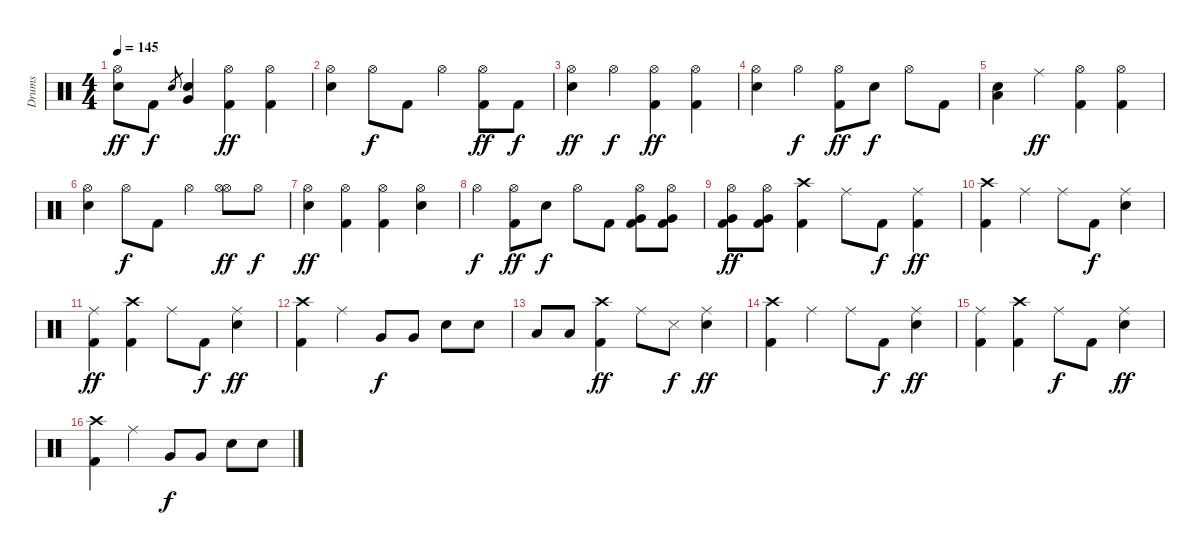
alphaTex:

\track ("Drums" "Drums") {instrument percussion}
\staff {score}
\articulation defaults
\ts (4 4)
\tempo 145
\clef neutral
\ks c
("Hi-Hat (open)" "Electric Snare (hit)").8{dy ff} "Kick (hit) 2".8{dy f} "Electric Snare (hit)".8{gr} ("Very Low Tom (hit)" "Electric Snare (hit)").4 ("Hi-Hat (open)" "Kick (hit) 2").4{dy ff} ("Hi-Hat (open)" "Kick (hit) 2").4 |
("Hi-Hat (open)" "Electric Snare (hit)").4 "Hi-Hat (open)".8{dy f} "Kick (hit) 2".8 "Hi-Hat (open)".4 ("Hi-Hat (open)" "Kick (hit) 2").8{dy ff} "Kick (hit) 2".8{dy f} |
("Hi-Hat (open)" "Electric Snare (hit)").4{dy ff} "Hi-Hat (open)".4{dy f} ("Hi-Hat (open)" "Kick (hit) 2").4{dy ff} ("Hi-Hat (open)" "Kick (hit) 2").4 |
("Hi-Hat (open)" "Electric Snare (hit)").4 "Hi-Hat (open)".4{dy f} ("Hi-Hat (open)" "Kick (hit) 2").8{dy ff} "Electric Snare (hit)".8{dy f} "Hi-Hat (open)".8 "Kick (hit) 2".8 |
("Low Tom (hit)" "Electric Snare (hit)").4 "Ride (middle)".4{dy ff} ("Hi-Hat (open)" "Kick (hit) 2").4 ("Hi-Hat (open)" "Kick (hit) 2").4 |
("Hi-Hat (open)" "Electric Snare (hit)").4 "Hi-Hat (open)".8{dy f} "Kick (hit) 2".8 "Hi-Hat (open)".4 ("Hi-Hat (open)" "Hi-Hat (open)").8{dy ff} "Hi-Hat (open)".8{dy f} |
("Hi-Hat (open)" "Electric Snare (hit)").4{dy ff} ("Hi-Hat (open)" "Kick (hit) 2").4 ("Hi-Hat (open)" "Kick (hit) 2").4 ("Hi-Hat (open)" "Electric Snare (hit)").4 |
"Hi-Hat (open)".4{dy f} ("Hi-Hat (open)" "Kick (hit) 2").8{dy ff} "Electric Snare (hit)".8{dy f} "Hi-Hat (open)".8 "Kick (hit) 2".8 ("Hi-Hat (open)" "Very Low Tom (hit)" "Kick (hit) 2").8 ("Hi-Hat (open)" "Very Low Tom (hit)" "Kick (hit) 2").8 |
("Hi-Hat (open)" "Very Low Tom (hit)" "Kick (hit) 2").8{dy ff} ("Hi-Hat (open)" "Very Low Tom (hit)" "Kick (hit) 2").8 ("Crash high (hit)" "Kick (hit) 2").4 "Ride (middle)".8 "Kick (hit) 2".8{dy f} ("Ride (middle)" "Kick (hit) 2").4{dy ff} |
("Crash high (hit)" "Kick (hit) 2").4 "Ride (middle)".4 "Ride (middle)".8 "Kick (hit) 2".8{dy f} ("Ride (middle)" "Electric Snare (hit)").4 |
("Ride (middle)" "Kick (hit) 2").4{dy ff} ("Crash high (hit)" "Kick (hit) 2").4 "Ride (middle)".8 "Kick (hit) 2".8{dy f} ("Ride (middle)" "Electric Snare (hit)").4{dy ff} |
("Crash high (hit)" "Kick (hit) 2").4 "Ride (middle)".4 "Very Low Tom (hit)".8{dy f} "Very Low Tom (hit)".8 "Electric Snare (hit)".8 "Electric Snare (hit)".8 |
"Low Tom (hit)".8 "Low Tom (hit)".8 ("Crash high (hit)" "Kick (hit) 2").4{dy ff} "Ride (middle)".8 "Snare (side stick) 3".8{dy f} ("Ride (middle)" "Electric Snare (hit)").4{dy ff} |
("Crash high (hit)" "Kick (hit) 2").4 "Ride (middle)".4 "Ride (middle)".8 "Kick (hit) 2".8{dy f} ("Ride (middle)" "Electric Snare (hit)").4{dy ff} |
("Ride (middle)" "Kick (hit) 2").4 ("Crash high (hit)" "Kick (hit) 2").4 "Ride (middle)".8{dy f} "Kick (hit) 2".8 ("Ride (middle)" "Electric Snare (hit)").4{dy ff} |
("Crash high (hit)" "Kick (hit) 2").4 "Ride (middle)".4 "Very Low Tom (hit)".8{dy f} "Very Low Tom (hit)".8 "Electric Snare (hit)".8 "Electric Snare (hit)".8
